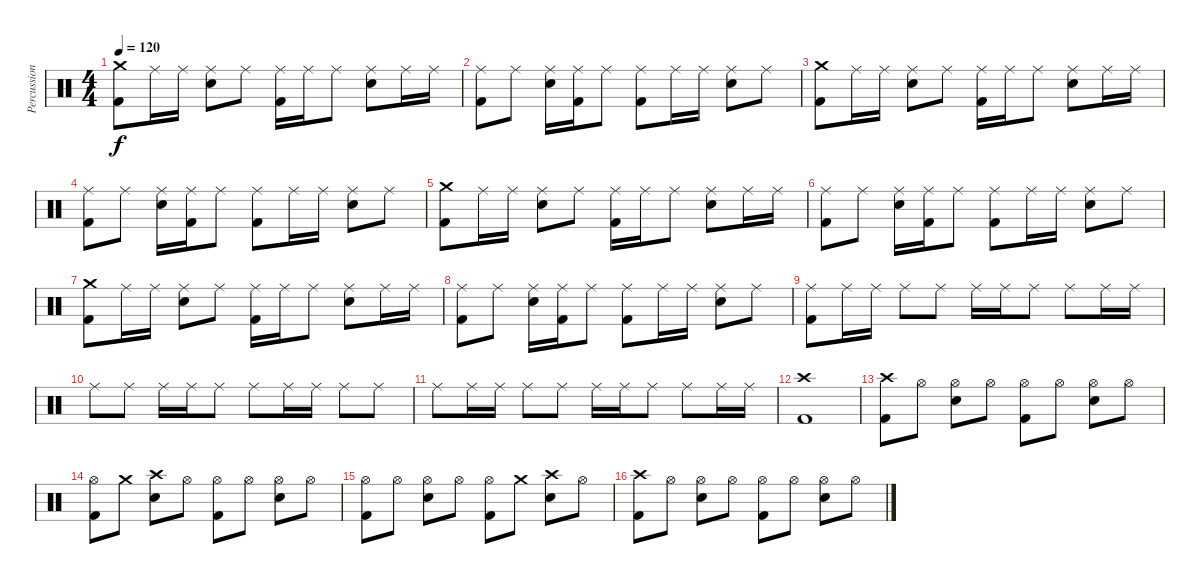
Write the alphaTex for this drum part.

\track ("Percussion" "Percussion") {instrument percussion}
\staff {score}
\articulation defaults
\ts (4 4)
\tempo 120
\clef neutral
\ks c
("Crash medium (hit)" "Kick (hit) 2").8{dy f} "Ride (middle)".16 "Ride (middle)".16 ("Ride (middle)" "Snare (hit) 2").8 "Ride (middle)".8 ("Ride (middle)" "Kick (hit) 2").16 "Ride (middle)".16 "Ride (middle)".8 ("Ride (middle)" "Snare (hit) 2").8 "Ride (middle)".16 "Ride (middle)".16 |
("Ride (middle)" "Kick (hit) 2").8 "Ride (middle)".8 ("Ride (middle)" "Snare (hit) 2").16 ("Ride (middle)" "Kick (hit) 2").16 "Ride (middle)".8 ("Ride (middle)" "Kick (hit) 2").8 "Ride (middle)".16 "Ride (middle)".16 ("Ride (middle)" "Snare (hit) 2").8 "Ride (middle)".8 |
("Crash medium (hit)" "Kick (hit) 2").8 "Ride (middle)".16 "Ride (middle)".16 ("Ride (middle)" "Snare (hit) 2").8 "Ride (middle)".8 ("Ride (middle)" "Kick (hit) 2").16 "Ride (middle)".16 "Ride (middle)".8 ("Ride (middle)" "Snare (hit) 2").8 "Ride (middle)".16 "Ride (middle)".16 |
("Ride (middle)" "Kick (hit) 2").8 "Ride (middle)".8 ("Ride (middle)" "Snare (hit) 2").16 ("Ride (middle)" "Kick (hit) 2").16 "Ride (middle)".8 ("Ride (middle)" "Kick (hit) 2").8 "Ride (middle)".16 "Ride (middle)".16 ("Ride (middle)" "Snare (hit) 2").8 "Ride (middle)".8 |
("Crash medium (hit)" "Kick (hit) 2").8 "Ride (middle)".16 "Ride (middle)".16 ("Ride (middle)" "Snare (hit) 2").8 "Ride (middle)".8 ("Ride (middle)" "Kick (hit) 2").16 "Ride (middle)".16 "Ride (middle)".8 ("Ride (middle)" "Snare (hit) 2").8 "Ride (middle)".16 "Ride (middle)".16 |
("Ride (middle)" "Kick (hit) 2").8 "Ride (middle)".8 ("Ride (middle)" "Snare (hit) 2").16 ("Ride (middle)" "Kick (hit) 2").16 "Ride (middle)".8 ("Ride (middle)" "Kick (hit) 2").8 "Ride (middle)".16 "Ride (middle)".16 ("Ride (middle)" "Snare (hit) 2").8 "Ride (middle)".8 |
("Crash medium (hit)" "Kick (hit) 2").8 "Ride (middle)".16 "Ride (middle)".16 ("Ride (middle)" "Snare (hit) 2").8 "Ride (middle)".8 ("Ride (middle)" "Kick (hit) 2").16 "Ride (middle)".16 "Ride (middle)".8 ("Ride (middle)" "Snare (hit) 2").8 "Ride (middle)".16 "Ride (middle)".16 |
("Ride (middle)" "Kick (hit) 2").8 "Ride (middle)".8 ("Ride (middle)" "Snare (hit) 2").16 ("Ride (middle)" "Kick (hit) 2").16 "Ride (middle)".8 ("Ride (middle)" "Kick (hit) 2").8 "Ride (middle)".16 "Ride (middle)".16 ("Ride (middle)" "Snare (hit) 2").8 "Ride (middle)".8 |
("Ride (middle)" "Kick (hit) 2").8 "Ride (middle)".16 "Ride (middle)".16 "Ride (middle)".8 "Ride (middle)".8 "Ride (middle)".16 "Ride (middle)".16 "Ride (middle)".8 "Ride (middle)".8 "Ride (middle)".16 "Ride (middle)".16 |
"Ride (middle)".8 "Ride (middle)".8 "Ride (middle)".16 "Ride (middle)".16 "Ride (middle)".8 "Ride (middle)".8 "Ride (middle)".16 "Ride (middle)".16 "Ride (middle)".8 "Ride (middle)".8 |
"Ride (middle)".8 "Ride (middle)".16 "Ride (middle)".16 "Ride (middle)".8 "Ride (middle)".8 "Ride (middle)".16 "Ride (middle)".16 "Ride (middle)".8 "Ride (middle)".8 "Ride (middle)".16 "Ride (middle)".16 |
("Crash high (hit)" "Kick (hit) 2").1 |
("Crash high (hit)" "Kick (hit) 2").8 "Hi-Hat (open)".8 ("Hi-Hat (open)" "Snare (hit) 2").8 "Hi-Hat (open)".8 ("Hi-Hat (open)" "Kick (hit) 2").8 "Hi-Hat (open)".8 ("Hi-Hat (open)" "Snare (hit) 2").8 "Hi-Hat (open)".8 |
("Hi-Hat (open)" "Kick (hit) 2").8 "Crash medium (hit)".8 ("Crash high (hit)" "Snare (hit) 2").8 "Hi-Hat (open)".8 ("Hi-Hat (open)" "Kick (hit) 2").8 "Hi-Hat (open)".8 ("Hi-Hat (open)" "Snare (hit) 2").8 "Hi-Hat (open)".8 |
("Hi-Hat (open)" "Kick (hit) 2").8 "Hi-Hat (open)".8 ("Hi-Hat (open)" "Snare (hit) 2").8 "Hi-Hat (open)".8 ("Hi-Hat (open)" "Kick (hit) 2").8 "Crash medium (hit)".8 ("Crash high (hit)" "Snare (hit) 2").8 "Hi-Hat (open)".8 |
("Crash high (hit)" "Kick (hit) 2").8 "Hi-Hat (open)".8 ("Hi-Hat (open)" "Snare (hit) 2").8 "Hi-Hat (open)".8 ("Hi-Hat (open)" "Kick (hit) 2").8 "Hi-Hat (open)".8 ("Hi-Hat (open)" "Snare (hit) 2").8 "Hi-Hat (open)".8
